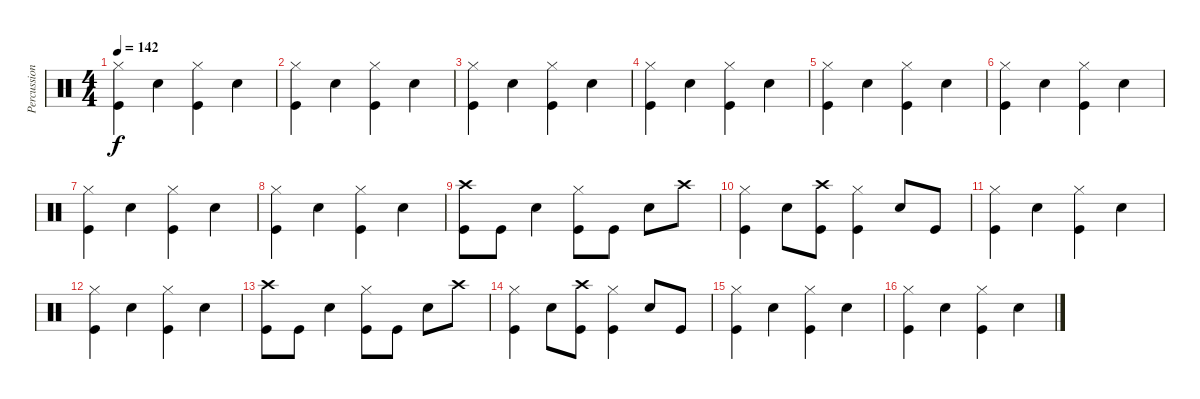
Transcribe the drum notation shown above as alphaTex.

\track ("Percussion" "Percussion") {instrument percussion}
\staff {score}
\articulation defaults
\ts (4 4)
\tempo 142
\clef neutral
\ks c
("Hi-Hat (closed)" "Kick (hit)").4{dy f} "Snare (hit) 2".4 ("Hi-Hat (closed)" "Kick (hit)").4 "Snare (hit) 2".4 |
("Hi-Hat (closed)" "Kick (hit)").4 "Snare (hit) 2".4 ("Hi-Hat (closed)" "Kick (hit)").4 "Snare (hit) 2".4 |
("Hi-Hat (closed)" "Kick (hit)").4 "Snare (hit) 2".4 ("Hi-Hat (closed)" "Kick (hit)").4 "Snare (hit) 2".4 |
("Hi-Hat (closed)" "Kick (hit)").4 "Snare (hit) 2".4 ("Hi-Hat (closed)" "Kick (hit)").4 "Snare (hit) 2".4 |
("Hi-Hat (closed)" "Kick (hit)").4 "Snare (hit) 2".4 ("Hi-Hat (closed)" "Kick (hit)").4 "Snare (hit) 2".4 |
("Hi-Hat (closed)" "Kick (hit)").4 "Snare (hit) 2".4 ("Hi-Hat (closed)" "Kick (hit)").4 "Snare (hit) 2".4 |
("Hi-Hat (closed)" "Kick (hit)").4 "Snare (hit) 2".4 ("Hi-Hat (closed)" "Kick (hit)").4 "Snare (hit) 2".4 |
("Hi-Hat (closed)" "Kick (hit)").4 "Snare (hit) 2".4 ("Hi-Hat (closed)" "Kick (hit)").4 "Snare (hit) 2".4 |
("Crash high (hit)" "Kick (hit)").8 "Kick (hit)".8 "Snare (hit) 2".4 ("Hi-Hat (closed)" "Kick (hit)").8 "Kick (hit)".8 "Snare (hit) 2".8 "Crash high (hit)".8 |
("Hi-Hat (closed)" "Kick (hit)").4 "Snare (hit) 2".8 ("Crash high (hit)" "Kick (hit)").8 ("Hi-Hat (closed)" "Kick (hit)").4 "Snare (hit) 2".8 "Kick (hit)".8 |
("Hi-Hat (closed)" "Kick (hit)").4 "Snare (hit) 2".4 ("Hi-Hat (closed)" "Kick (hit)").4 "Snare (hit) 2".4 |
("Hi-Hat (closed)" "Kick (hit)").4 "Snare (hit) 2".4 ("Hi-Hat (closed)" "Kick (hit)").4 "Snare (hit) 2".4 |
("Crash high (hit)" "Kick (hit)").8 "Kick (hit)".8 "Snare (hit) 2".4 ("Hi-Hat (closed)" "Kick (hit)").8 "Kick (hit)".8 "Snare (hit) 2".8 "Crash high (hit)".8 |
("Hi-Hat (closed)" "Kick (hit)").4 "Snare (hit) 2".8 ("Crash high (hit)" "Kick (hit)").8 ("Hi-Hat (closed)" "Kick (hit)").4 "Snare (hit) 2".8 "Kick (hit)".8 |
("Hi-Hat (closed)" "Kick (hit)").4 "Snare (hit) 2".4 ("Hi-Hat (closed)" "Kick (hit)").4 "Snare (hit) 2".4 |
("Hi-Hat (closed)" "Kick (hit)").4 "Snare (hit) 2".4 ("Hi-Hat (closed)" "Kick (hit)").4 "Snare (hit) 2".4
